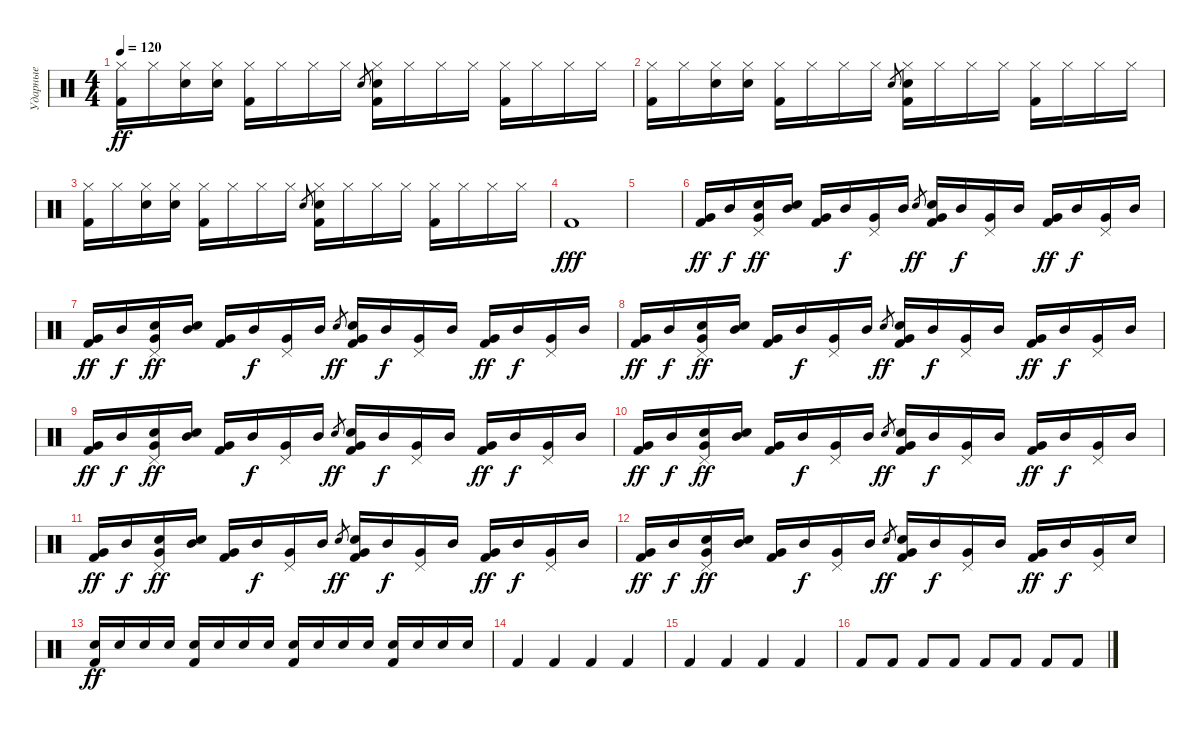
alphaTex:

\track ("Ударные" "Ударные") {instrument percussion}
\staff {score}
\articulation defaults
\ts (4 4)
\tempo 120
\clef neutral
\ks c
("Hi-Hat (closed)" "Kick (hit) 2").16{dy ff} "Hi-Hat (closed)".16 ("Hi-Hat (closed)" "Electric Snare (hit)").16 ("Hi-Hat (closed)" "Electric Snare (hit)").16 ("Hi-Hat (closed)" "Kick (hit) 2").16 "Hi-Hat (closed)".16 "Hi-Hat (closed)".16 "Hi-Hat (closed)".16 "Electric Snare (hit)".8{gr} ("Hi-Hat (closed)" "Electric Snare (hit)" "Kick (hit) 2").16 "Hi-Hat (closed)".16 "Hi-Hat (closed)".16 "Hi-Hat (closed)".16 ("Hi-Hat (closed)" "Kick (hit) 2").16 "Hi-Hat (closed)".16 "Hi-Hat (closed)".16 "Hi-Hat (closed)".16 |
("Hi-Hat (closed)" "Kick (hit) 2").16 "Hi-Hat (closed)".16 ("Hi-Hat (closed)" "Electric Snare (hit)").16 ("Hi-Hat (closed)" "Electric Snare (hit)").16 ("Hi-Hat (closed)" "Kick (hit) 2").16 "Hi-Hat (closed)".16 "Hi-Hat (closed)".16 "Hi-Hat (closed)".16 "Electric Snare (hit)".8{gr} ("Hi-Hat (closed)" "Electric Snare (hit)" "Kick (hit) 2").16 "Hi-Hat (closed)".16 "Hi-Hat (closed)".16 "Hi-Hat (closed)".16 ("Hi-Hat (closed)" "Kick (hit) 2").16 "Hi-Hat (closed)".16 "Hi-Hat (closed)".16 "Hi-Hat (closed)".16 |
("Hi-Hat (closed)" "Kick (hit) 2").16 "Hi-Hat (closed)".16 ("Hi-Hat (closed)" "Electric Snare (hit)").16 ("Hi-Hat (closed)" "Electric Snare (hit)").16 ("Hi-Hat (closed)" "Kick (hit) 2").16 "Hi-Hat (closed)".16 "Hi-Hat (closed)".16 "Hi-Hat (closed)".16 "Electric Snare (hit)".8{gr} ("Hi-Hat (closed)" "Electric Snare (hit)" "Kick (hit) 2").16 "Hi-Hat (closed)".16 "Hi-Hat (closed)".16 "Hi-Hat (closed)".16 ("Hi-Hat (closed)" "Kick (hit) 2").16 "Hi-Hat (closed)".16 "Hi-Hat (closed)".16 "Hi-Hat (closed)".16 |
"Kick (hit) 2".1{dy fff} |
|
("Very Low Tom (hit)" "Kick (hit) 2").16{dy ff} "Mid Tom (hit)".16{dy f} ("Very Low Tom (hit)" "Electric Snare (hit)" "Pedal Hi-Hat (hit)").16{dy ff} ("Mid Tom (hit)" "Electric Snare (hit)").16 ("Very Low Tom (hit)" "Kick (hit) 2").16 "Mid Tom (hit)".16{dy f} ("Very Low Tom (hit)" "Pedal Hi-Hat (hit)").16 "Mid Tom (hit)".16 "Electric Snare (hit)".8{gr dy ff} ("Very Low Tom (hit)" "Electric Snare (hit)" "Kick (hit) 2").16 "Mid Tom (hit)".16{dy f} ("Very Low Tom (hit)" "Pedal Hi-Hat (hit)").16 "Mid Tom (hit)".16 ("Very Low Tom (hit)" "Kick (hit) 2").16{dy ff} "Mid Tom (hit)".16{dy f} ("Very Low Tom (hit)" "Pedal Hi-Hat (hit)").16 "Mid Tom (hit)".16 |
("Very Low Tom (hit)" "Kick (hit) 2").16{dy ff} "Mid Tom (hit)".16{dy f} ("Very Low Tom (hit)" "Electric Snare (hit)" "Pedal Hi-Hat (hit)").16{dy ff} ("Mid Tom (hit)" "Electric Snare (hit)").16 ("Very Low Tom (hit)" "Kick (hit) 2").16 "Mid Tom (hit)".16{dy f} ("Very Low Tom (hit)" "Pedal Hi-Hat (hit)").16 "Mid Tom (hit)".16 "Electric Snare (hit)".8{gr dy ff} ("Very Low Tom (hit)" "Electric Snare (hit)" "Kick (hit) 2").16 "Mid Tom (hit)".16{dy f} ("Very Low Tom (hit)" "Pedal Hi-Hat (hit)").16 "Mid Tom (hit)".16 ("Very Low Tom (hit)" "Kick (hit) 2").16{dy ff} "Mid Tom (hit)".16{dy f} ("Very Low Tom (hit)" "Pedal Hi-Hat (hit)").16 "Mid Tom (hit)".16 |
("Very Low Tom (hit)" "Kick (hit) 2").16{dy ff} "Mid Tom (hit)".16{dy f} ("Very Low Tom (hit)" "Electric Snare (hit)" "Pedal Hi-Hat (hit)").16{dy ff} ("Mid Tom (hit)" "Electric Snare (hit)").16 ("Very Low Tom (hit)" "Kick (hit) 2").16 "Mid Tom (hit)".16{dy f} ("Very Low Tom (hit)" "Pedal Hi-Hat (hit)").16 "Mid Tom (hit)".16 "Electric Snare (hit)".8{gr dy ff} ("Very Low Tom (hit)" "Electric Snare (hit)" "Kick (hit) 2").16 "Mid Tom (hit)".16{dy f} ("Very Low Tom (hit)" "Pedal Hi-Hat (hit)").16 "Mid Tom (hit)".16 ("Very Low Tom (hit)" "Kick (hit) 2").16{dy ff} "Mid Tom (hit)".16{dy f} ("Very Low Tom (hit)" "Pedal Hi-Hat (hit)").16 "Mid Tom (hit)".16 |
("Very Low Tom (hit)" "Kick (hit) 2").16{dy ff} "Mid Tom (hit)".16{dy f} ("Very Low Tom (hit)" "Electric Snare (hit)" "Pedal Hi-Hat (hit)").16{dy ff} ("Mid Tom (hit)" "Electric Snare (hit)").16 ("Very Low Tom (hit)" "Kick (hit) 2").16 "Mid Tom (hit)".16{dy f} ("Very Low Tom (hit)" "Pedal Hi-Hat (hit)").16 "Mid Tom (hit)".16 "Electric Snare (hit)".8{gr dy ff} ("Very Low Tom (hit)" "Electric Snare (hit)" "Kick (hit) 2").16 "Mid Tom (hit)".16{dy f} ("Very Low Tom (hit)" "Pedal Hi-Hat (hit)").16 "Mid Tom (hit)".16 ("Very Low Tom (hit)" "Kick (hit) 2").16{dy ff} "Mid Tom (hit)".16{dy f} ("Very Low Tom (hit)" "Pedal Hi-Hat (hit)").16 "Mid Tom (hit)".16 |
("Very Low Tom (hit)" "Kick (hit) 2").16{dy ff} "Mid Tom (hit)".16{dy f} ("Very Low Tom (hit)" "Electric Snare (hit)" "Pedal Hi-Hat (hit)").16{dy ff} ("Mid Tom (hit)" "Electric Snare (hit)").16 ("Very Low Tom (hit)" "Kick (hit) 2").16 "Mid Tom (hit)".16{dy f} ("Very Low Tom (hit)" "Pedal Hi-Hat (hit)").16 "Mid Tom (hit)".16 "Electric Snare (hit)".8{gr dy ff} ("Very Low Tom (hit)" "Electric Snare (hit)" "Kick (hit) 2").16 "Mid Tom (hit)".16{dy f} ("Very Low Tom (hit)" "Pedal Hi-Hat (hit)").16 "Mid Tom (hit)".16 ("Very Low Tom (hit)" "Kick (hit) 2").16{dy ff} "Mid Tom (hit)".16{dy f} ("Very Low Tom (hit)" "Pedal Hi-Hat (hit)").16 "Mid Tom (hit)".16 |
("Very Low Tom (hit)" "Kick (hit) 2").16{dy ff} "Mid Tom (hit)".16{dy f} ("Very Low Tom (hit)" "Electric Snare (hit)" "Pedal Hi-Hat (hit)").16{dy ff} ("Mid Tom (hit)" "Electric Snare (hit)").16 ("Very Low Tom (hit)" "Kick (hit) 2").16 "Mid Tom (hit)".16{dy f} ("Very Low Tom (hit)" "Pedal Hi-Hat (hit)").16 "Mid Tom (hit)".16 "Electric Snare (hit)".8{gr dy ff} ("Very Low Tom (hit)" "Electric Snare (hit)" "Kick (hit) 2").16 "Mid Tom (hit)".16{dy f} ("Very Low Tom (hit)" "Pedal Hi-Hat (hit)").16 "Mid Tom (hit)".16 ("Very Low Tom (hit)" "Kick (hit) 2").16{dy ff} "Mid Tom (hit)".16{dy f} ("Very Low Tom (hit)" "Pedal Hi-Hat (hit)").16 "Mid Tom (hit)".16 |
("Very Low Tom (hit)" "Kick (hit) 2").16{dy ff} "Mid Tom (hit)".16{dy f} ("Very Low Tom (hit)" "Electric Snare (hit)" "Pedal Hi-Hat (hit)").16{dy ff} ("Mid Tom (hit)" "Electric Snare (hit)").16 ("Very Low Tom (hit)" "Kick (hit) 2").16 "Mid Tom (hit)".16{dy f} ("Very Low Tom (hit)" "Pedal Hi-Hat (hit)").16 "Mid Tom (hit)".16 "Electric Snare (hit)".8{gr dy ff} ("Very Low Tom (hit)" "Electric Snare (hit)" "Kick (hit) 2").16 "Mid Tom (hit)".16{dy f} ("Very Low Tom (hit)" "Pedal Hi-Hat (hit)").16 "Mid Tom (hit)".16 ("Very Low Tom (hit)" "Kick (hit) 2").16{dy ff} "Mid Tom (hit)".16{dy f} ("Very Low Tom (hit)" "Pedal Hi-Hat (hit)").16 "Electric Snare (hit)".16 |
("Electric Snare (hit)" "Kick (hit) 2").16{dy ff} "Electric Snare (hit)".16 "Electric Snare (hit)".16 "Electric Snare (hit)".16 ("Electric Snare (hit)" "Kick (hit) 2").16 "Electric Snare (hit)".16 "Electric Snare (hit)".16 "Electric Snare (hit)".16 ("Electric Snare (hit)" "Kick (hit) 2").16 "Electric Snare (hit)".16 "Electric Snare (hit)".16 "Electric Snare (hit)".16 ("Electric Snare (hit)" "Kick (hit) 2").16 "Electric Snare (hit)".16 "Electric Snare (hit)".16 "Electric Snare (hit)".16 |
"Kick (hit) 2".4 "Kick (hit) 2".4 "Kick (hit) 2".4 "Kick (hit) 2".4 |
"Kick (hit) 2".4 "Kick (hit) 2".4 "Kick (hit) 2".4 "Kick (hit) 2".4 |
"Kick (hit) 2".8 "Kick (hit) 2".8 "Kick (hit) 2".8 "Kick (hit) 2".8 "Kick (hit) 2".8 "Kick (hit) 2".8 "Kick (hit) 2".8 "Kick (hit) 2".8
